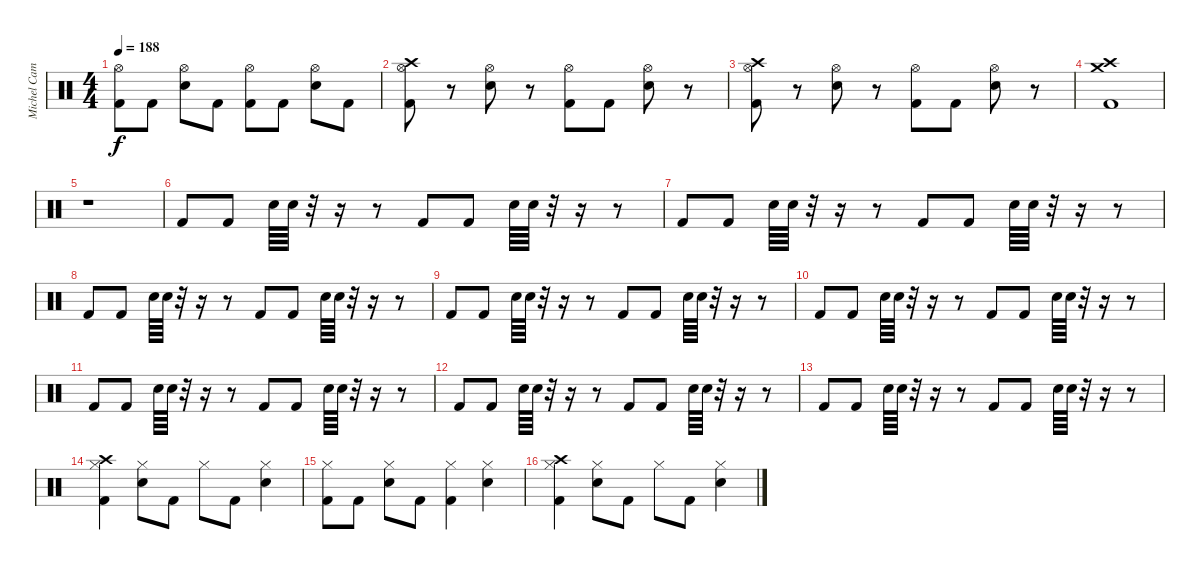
\track ("Michel Camiade" "Michel Cam") {instrument percussion}
\staff {score}
\articulation defaults
\ts (4 4)
\tempo 188
\clef neutral
\ks c
("Hi-Hat (open)" "Kick (hit) 2").8{dy f} "Kick (hit) 2".8 ("Hi-Hat (open)" "Snare (hit) 2").8 "Kick (hit) 2".8 ("Hi-Hat (open)" "Kick (hit) 2").8 "Kick (hit) 2".8 ("Hi-Hat (open)" "Snare (hit) 2").8 "Kick (hit) 2".8 |
("Crash high (hit)" "Hi-Hat (open)" "Kick (hit) 2").8 r.8 ("Hi-Hat (open)" "Snare (hit) 2").8 r.8 ("Hi-Hat (open)" "Kick (hit) 2").8 "Kick (hit) 2".8 ("Hi-Hat (open)" "Snare (hit) 2").8 r.8 |
("Crash high (hit)" "Hi-Hat (open)" "Kick (hit) 2").8 r.8 ("Hi-Hat (open)" "Snare (hit) 2").8 r.8 ("Hi-Hat (open)" "Kick (hit) 2").8 "Kick (hit) 2".8 ("Hi-Hat (open)" "Snare (hit) 2").8 r.8 |
("Crash high (hit)" "Crash medium (hit)" "Kick (hit) 2").1 |
r.1 |
"Kick (hit) 2".8 "Kick (hit) 2".8 "Snare (hit) 2".64 "Snare (hit) 2".64 r.32 r.16 r.8 "Kick (hit) 2".8 "Kick (hit) 2".8 "Snare (hit) 2".64 "Snare (hit) 2".64 r.32 r.16 r.8 |
"Kick (hit) 2".8 "Kick (hit) 2".8 "Snare (hit) 2".64 "Snare (hit) 2".64 r.32 r.16 r.8 "Kick (hit) 2".8 "Kick (hit) 2".8 "Snare (hit) 2".64 "Snare (hit) 2".64 r.32 r.16 r.8 |
"Kick (hit) 2".8 "Kick (hit) 2".8 "Snare (hit) 2".64 "Snare (hit) 2".64 r.32 r.16 r.8 "Kick (hit) 2".8 "Kick (hit) 2".8 "Snare (hit) 2".64 "Snare (hit) 2".64 r.32 r.16 r.8 |
"Kick (hit) 2".8 "Kick (hit) 2".8 "Snare (hit) 2".64 "Snare (hit) 2".64 r.32 r.16 r.8 "Kick (hit) 2".8 "Kick (hit) 2".8 "Snare (hit) 2".64 "Snare (hit) 2".64 r.32 r.16 r.8 |
"Kick (hit) 2".8 "Kick (hit) 2".8 "Snare (hit) 2".64 "Snare (hit) 2".64 r.32 r.16 r.8 "Kick (hit) 2".8 "Kick (hit) 2".8 "Snare (hit) 2".64 "Snare (hit) 2".64 r.32 r.16 r.8 |
"Kick (hit) 2".8 "Kick (hit) 2".8 "Snare (hit) 2".64 "Snare (hit) 2".64 r.32 r.16 r.8 "Kick (hit) 2".8 "Kick (hit) 2".8 "Snare (hit) 2".64 "Snare (hit) 2".64 r.32 r.16 r.8 |
"Kick (hit) 2".8 "Kick (hit) 2".8 "Snare (hit) 2".64 "Snare (hit) 2".64 r.32 r.16 r.8 "Kick (hit) 2".8 "Kick (hit) 2".8 "Snare (hit) 2".64 "Snare (hit) 2".64 r.32 r.16 r.8 |
"Kick (hit) 2".8 "Kick (hit) 2".8 "Snare (hit) 2".64 "Snare (hit) 2".64 r.32 r.16 r.8 "Kick (hit) 2".8 "Kick (hit) 2".8 "Snare (hit) 2".64 "Snare (hit) 2".64 r.32 r.16 r.8 |
("Crash high (hit)" "Hi-Hat (closed)" "Kick (hit) 2").4 ("Hi-Hat (closed)" "Snare (hit) 2").8 "Kick (hit) 2".8 "Hi-Hat (closed)".8 "Kick (hit) 2".8 ("Hi-Hat (closed)" "Snare (hit) 2").4 |
("Hi-Hat (closed)" "Kick (hit) 2").8 "Kick (hit) 2".8 ("Hi-Hat (closed)" "Snare (hit) 2").8 "Kick (hit) 2".8 ("Hi-Hat (closed)" "Kick (hit) 2").4 ("Hi-Hat (closed)" "Snare (hit) 2").4 |
("Crash high (hit)" "Hi-Hat (closed)" "Kick (hit) 2").4 ("Hi-Hat (closed)" "Snare (hit) 2").8 "Kick (hit) 2".8 "Hi-Hat (closed)".8 "Kick (hit) 2".8 ("Hi-Hat (closed)" "Snare (hit) 2").4
